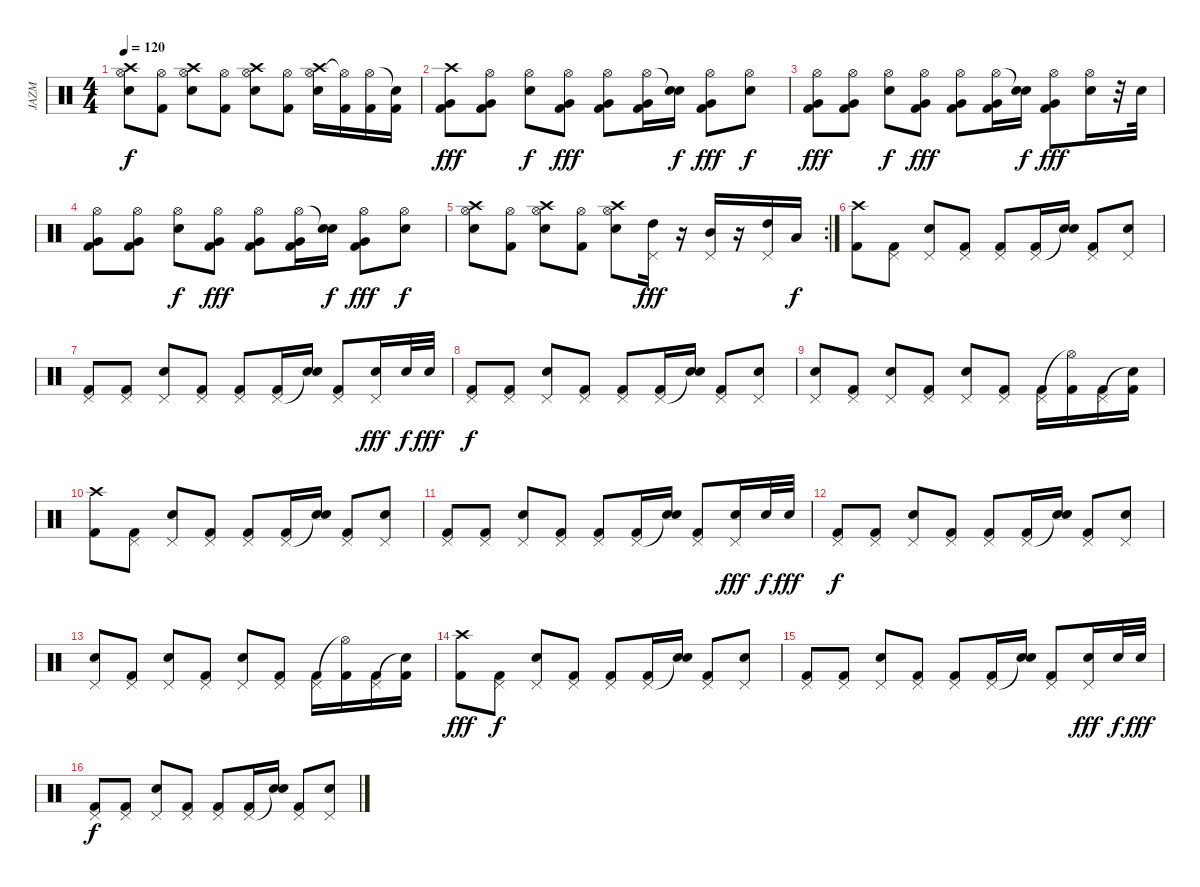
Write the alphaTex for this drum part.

\track ("JAZM" "JAZM") {instrument percussion}
\staff {score}
\articulation defaults
\ts (4 4)
\tempo 120
\clef neutral
\ks c
("Hi-Hat (open)" "Crash high (hit)" "Electric Snare (hit)").8{dy f} ("Hi-Hat (open)" "Kick (hit) 2").8 ("Hi-Hat (open)" "Crash high (hit)" "Electric Snare (hit)").8 ("Hi-Hat (open)" "Kick (hit) 2").8 ("Hi-Hat (open)" "Crash high (hit)" "Electric Snare (hit)").8 ("Hi-Hat (open)" "Kick (hit) 2").8 ("Hi-Hat (open)" "Crash high (hit)" "Electric Snare (hit)").16 ("Hi-Hat (open)"{t} "Kick (hit) 2").16 ("Hi-Hat (open)" "Kick (hit) 2").16 ("Snare (hit)"{t} "Kick (hit) 2").16 |
("Crash high (hit)" "Very Low Tom (hit)" "Kick (hit) 2").8{dy fff} ("Hi-Hat (open)" "Very Low Tom (hit)" "Kick (hit) 2").8 ("Hi-Hat (open)" "Electric Snare (hit)").8{dy f} ("Hi-Hat (open)" "Very Low Tom (hit)" "Kick (hit) 2").8{dy fff} ("Hi-Hat (open)" "Very Low Tom (hit)" "Kick (hit) 2").8 ("Hi-Hat (open)" "Very Low Tom (hit)" "Kick (hit) 2").16 ("Snare (hit)"{t} "Electric Snare (hit)").16{dy f} ("Hi-Hat (open)" "Very Low Tom (hit)" "Kick (hit) 2").8{dy fff} ("Hi-Hat (open)" "Electric Snare (hit)").8{dy f} |
("Hi-Hat (open)" "Very Low Tom (hit)" "Kick (hit) 2").8{dy fff} ("Hi-Hat (open)" "Very Low Tom (hit)" "Kick (hit) 2").8 ("Hi-Hat (open)" "Electric Snare (hit)").8{dy f} ("Hi-Hat (open)" "Very Low Tom (hit)" "Kick (hit) 2").8{dy fff} ("Hi-Hat (open)" "Very Low Tom (hit)" "Kick (hit) 2").8 ("Hi-Hat (open)" "Very Low Tom (hit)" "Kick (hit) 2").16 ("Snare (hit)"{t} "Electric Snare (hit)").16{dy f} ("Hi-Hat (open)" "Very Low Tom (hit)" "Kick (hit) 2").8{dy fff} ("Hi-Hat (open)" "Electric Snare (hit)").16 r.32 "Electric Snare (hit)".32 |
("Hi-Hat (open)" "Very Low Tom (hit)" "Kick (hit) 2").8 ("Hi-Hat (open)" "Very Low Tom (hit)" "Kick (hit) 2").8 ("Hi-Hat (open)" "Electric Snare (hit)").8{dy f} ("Hi-Hat (open)" "Very Low Tom (hit)" "Kick (hit) 2").8{dy fff} ("Hi-Hat (open)" "Very Low Tom (hit)" "Kick (hit) 2").8 ("Hi-Hat (open)" "Very Low Tom (hit)" "Kick (hit) 2").16 ("Snare (hit)"{t} "Electric Snare (hit)").16{dy f} ("Hi-Hat (open)" "Very Low Tom (hit)" "Kick (hit) 2").8{dy fff} ("Hi-Hat (open)" "Electric Snare (hit)").8{dy f} |
\rc 2
("Hi-Hat (open)" "Crash high (hit)" "Electric Snare (hit)").8 ("Hi-Hat (open)" "Kick (hit) 2").8 ("Hi-Hat (open)" "Crash high (hit)" "Electric Snare (hit)").8 ("Hi-Hat (open)" "Kick (hit) 2").8 ("Hi-Hat (open)" "Crash high (hit)" "Electric Snare (hit)").8 ("Pedal Hi-Hat (hit)" "High Tom (hit)").16{dy fff} r.16 ("Pedal Hi-Hat (hit)" "Mid Tom (hit)").16 r.16 ("Pedal Hi-Hat (hit)" "High Tom (hit)").16 "Low Tom (hit)".16{dy f} |
("Crash high (hit)" "Kick (hit) 2").8 ("Pedal Hi-Hat (hit)" "Kick (hit) 2").8 ("Pedal Hi-Hat (hit)" "Electric Snare (hit)").8 ("Pedal Hi-Hat (hit)" "Kick (hit) 2").8 ("Pedal Hi-Hat (hit)" "Kick (hit) 2").8 ("Pedal Hi-Hat (hit)" "Kick (hit) 2").16 ("Snare (hit)"{t} "Electric Snare (hit)").16 ("Pedal Hi-Hat (hit)" "Kick (hit) 2").8 ("Pedal Hi-Hat (hit)" "Electric Snare (hit)").8 |
("Pedal Hi-Hat (hit)" "Kick (hit) 2").8 ("Pedal Hi-Hat (hit)" "Kick (hit) 2").8 ("Pedal Hi-Hat (hit)" "Electric Snare (hit)").8 ("Pedal Hi-Hat (hit)" "Kick (hit) 2").8 ("Pedal Hi-Hat (hit)" "Kick (hit) 2").8 ("Pedal Hi-Hat (hit)" "Kick (hit) 2").16 ("Snare (hit)"{t} "Electric Snare (hit)").16 ("Pedal Hi-Hat (hit)" "Kick (hit) 2").8 ("Pedal Hi-Hat (hit)" "Electric Snare (hit)").16{dy fff} "Electric Snare (hit)".32{dy f} "Electric Snare (hit)".32{dy fff} |
("Pedal Hi-Hat (hit)" "Kick (hit) 2").8{dy f} ("Pedal Hi-Hat (hit)" "Kick (hit) 2").8 ("Pedal Hi-Hat (hit)" "Electric Snare (hit)").8 ("Pedal Hi-Hat (hit)" "Kick (hit) 2").8 ("Pedal Hi-Hat (hit)" "Kick (hit) 2").8 ("Pedal Hi-Hat (hit)" "Kick (hit) 2").16 ("Snare (hit)"{t} "Electric Snare (hit)").16 ("Pedal Hi-Hat (hit)" "Kick (hit) 2").8 ("Pedal Hi-Hat (hit)" "Electric Snare (hit)").8 |
("Pedal Hi-Hat (hit)" "Electric Snare (hit)").8 ("Pedal Hi-Hat (hit)" "Kick (hit) 2").8 ("Pedal Hi-Hat (hit)" "Electric Snare (hit)").8 ("Pedal Hi-Hat (hit)" "Kick (hit) 2").8 ("Pedal Hi-Hat (hit)" "Electric Snare (hit)").8 ("Pedal Hi-Hat (hit)" "Kick (hit) 2").8 ("Pedal Hi-Hat (hit)" "Kick (hit) 2").16 ("Hi-Hat (open)"{t} "Kick (hit) 2").16 ("Pedal Hi-Hat (hit)" "Kick (hit) 2").16 ("Snare (hit)"{t} "Kick (hit) 2").16 |
("Crash high (hit)" "Kick (hit) 2").8 ("Pedal Hi-Hat (hit)" "Kick (hit) 2").8 ("Pedal Hi-Hat (hit)" "Electric Snare (hit)").8 ("Pedal Hi-Hat (hit)" "Kick (hit) 2").8 ("Pedal Hi-Hat (hit)" "Kick (hit) 2").8 ("Pedal Hi-Hat (hit)" "Kick (hit) 2").16 ("Snare (hit)"{t} "Electric Snare (hit)").16 ("Pedal Hi-Hat (hit)" "Kick (hit) 2").8 ("Pedal Hi-Hat (hit)" "Electric Snare (hit)").8 |
("Pedal Hi-Hat (hit)" "Kick (hit) 2").8 ("Pedal Hi-Hat (hit)" "Kick (hit) 2").8 ("Pedal Hi-Hat (hit)" "Electric Snare (hit)").8 ("Pedal Hi-Hat (hit)" "Kick (hit) 2").8 ("Pedal Hi-Hat (hit)" "Kick (hit) 2").8 ("Pedal Hi-Hat (hit)" "Kick (hit) 2").16 ("Snare (hit)"{t} "Electric Snare (hit)").16 ("Pedal Hi-Hat (hit)" "Kick (hit) 2").8 ("Pedal Hi-Hat (hit)" "Electric Snare (hit)").16{dy fff} "Electric Snare (hit)".32{dy f} "Electric Snare (hit)".32{dy fff} |
("Pedal Hi-Hat (hit)" "Kick (hit) 2").8{dy f} ("Pedal Hi-Hat (hit)" "Kick (hit) 2").8 ("Pedal Hi-Hat (hit)" "Electric Snare (hit)").8 ("Pedal Hi-Hat (hit)" "Kick (hit) 2").8 ("Pedal Hi-Hat (hit)" "Kick (hit) 2").8 ("Pedal Hi-Hat (hit)" "Kick (hit) 2").16 ("Snare (hit)"{t} "Electric Snare (hit)").16 ("Pedal Hi-Hat (hit)" "Kick (hit) 2").8 ("Pedal Hi-Hat (hit)" "Electric Snare (hit)").8 |
("Pedal Hi-Hat (hit)" "Electric Snare (hit)").8 ("Pedal Hi-Hat (hit)" "Kick (hit) 2").8 ("Pedal Hi-Hat (hit)" "Electric Snare (hit)").8 ("Pedal Hi-Hat (hit)" "Kick (hit) 2").8 ("Pedal Hi-Hat (hit)" "Electric Snare (hit)").8 ("Pedal Hi-Hat (hit)" "Kick (hit) 2").8 ("Pedal Hi-Hat (hit)" "Kick (hit) 2").16 ("Hi-Hat (open)"{t} "Kick (hit) 2").16 ("Pedal Hi-Hat (hit)" "Kick (hit) 2").16 ("Snare (hit)"{t} "Kick (hit) 2").16 |
("Crash high (hit)" "Kick (hit) 2").8{dy fff} ("Pedal Hi-Hat (hit)" "Kick (hit) 2").8{dy f} ("Pedal Hi-Hat (hit)" "Electric Snare (hit)").8 ("Pedal Hi-Hat (hit)" "Kick (hit) 2").8 ("Pedal Hi-Hat (hit)" "Kick (hit) 2").8 ("Pedal Hi-Hat (hit)" "Kick (hit) 2").16 ("Snare (hit)"{t} "Electric Snare (hit)").16 ("Pedal Hi-Hat (hit)" "Kick (hit) 2").8 ("Pedal Hi-Hat (hit)" "Electric Snare (hit)").8 |
("Pedal Hi-Hat (hit)" "Kick (hit) 2").8 ("Pedal Hi-Hat (hit)" "Kick (hit) 2").8 ("Pedal Hi-Hat (hit)" "Electric Snare (hit)").8 ("Pedal Hi-Hat (hit)" "Kick (hit) 2").8 ("Pedal Hi-Hat (hit)" "Kick (hit) 2").8 ("Pedal Hi-Hat (hit)" "Kick (hit) 2").16 ("Snare (hit)"{t} "Electric Snare (hit)").16 ("Pedal Hi-Hat (hit)" "Kick (hit) 2").8 ("Pedal Hi-Hat (hit)" "Electric Snare (hit)").16{dy fff} "Electric Snare (hit)".32{dy f} "Electric Snare (hit)".32{dy fff} |
("Pedal Hi-Hat (hit)" "Kick (hit) 2").8{dy f} ("Pedal Hi-Hat (hit)" "Kick (hit) 2").8 ("Pedal Hi-Hat (hit)" "Electric Snare (hit)").8 ("Pedal Hi-Hat (hit)" "Kick (hit) 2").8 ("Pedal Hi-Hat (hit)" "Kick (hit) 2").8 ("Pedal Hi-Hat (hit)" "Kick (hit) 2").16 ("Snare (hit)"{t} "Electric Snare (hit)").16 ("Pedal Hi-Hat (hit)" "Kick (hit) 2").8 ("Pedal Hi-Hat (hit)" "Electric Snare (hit)").8
